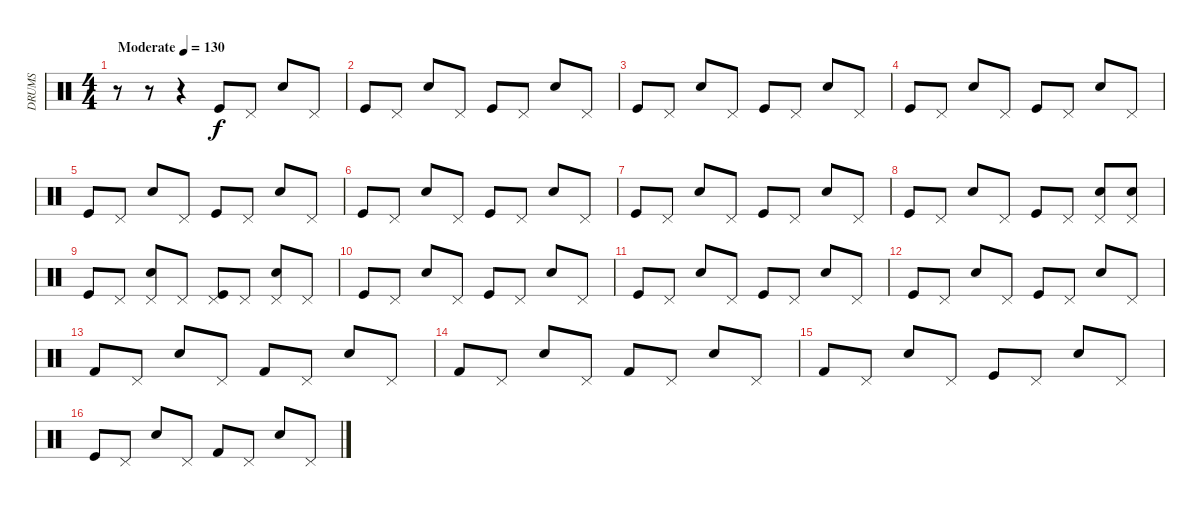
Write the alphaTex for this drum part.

\track ("DRUMS" "DRUMS") {instrument percussion}
\staff {score}
\articulation defaults
\ts (4 4)
\tempo (130 "Moderate")
\clef neutral
\ks c
r.8{dy f} r.8 r.4 "Kick (hit)".8 "Pedal Hi-Hat (hit)".8 "Snare (hit) 2".8 "Pedal Hi-Hat (hit)".8 |
"Kick (hit)".8 "Pedal Hi-Hat (hit)".8 "Snare (hit) 2".8 "Pedal Hi-Hat (hit)".8 "Kick (hit)".8 "Pedal Hi-Hat (hit)".8 "Snare (hit) 2".8 "Pedal Hi-Hat (hit)".8 |
"Kick (hit)".8 "Pedal Hi-Hat (hit)".8 "Snare (hit) 2".8 "Pedal Hi-Hat (hit)".8 "Kick (hit)".8 "Pedal Hi-Hat (hit)".8 "Snare (hit) 2".8 "Pedal Hi-Hat (hit)".8 |
"Kick (hit)".8 "Pedal Hi-Hat (hit)".8 "Snare (hit) 2".8 "Pedal Hi-Hat (hit)".8 "Kick (hit)".8 "Pedal Hi-Hat (hit)".8 "Snare (hit) 2".8 "Pedal Hi-Hat (hit)".8 |
"Kick (hit)".8 "Pedal Hi-Hat (hit)".8 "Snare (hit) 2".8 "Pedal Hi-Hat (hit)".8 "Kick (hit)".8 "Pedal Hi-Hat (hit)".8 "Snare (hit) 2".8 "Pedal Hi-Hat (hit)".8 |
"Kick (hit)".8 "Pedal Hi-Hat (hit)".8 "Snare (hit) 2".8 "Pedal Hi-Hat (hit)".8 "Kick (hit)".8 "Pedal Hi-Hat (hit)".8 "Snare (hit) 2".8 "Pedal Hi-Hat (hit)".8 |
"Kick (hit)".8 "Pedal Hi-Hat (hit)".8 "Snare (hit) 2".8 "Pedal Hi-Hat (hit)".8 "Kick (hit)".8 "Pedal Hi-Hat (hit)".8 "Snare (hit) 2".8 "Pedal Hi-Hat (hit)".8 |
"Kick (hit)".8 "Pedal Hi-Hat (hit)".8 "Snare (hit) 2".8 "Pedal Hi-Hat (hit)".8 "Kick (hit)".8 "Pedal Hi-Hat (hit)".8 ("Pedal Hi-Hat (hit)" "Snare (hit) 2").8 ("Pedal Hi-Hat (hit)" "Snare (hit)").8 |
"Kick (hit)".8 "Pedal Hi-Hat (hit)".8 ("Pedal Hi-Hat (hit)" "Snare (hit) 2").8 "Pedal Hi-Hat (hit)".8 ("Pedal Hi-Hat (hit)" "Kick (hit)").8 "Pedal Hi-Hat (hit)".8 ("Pedal Hi-Hat (hit)" "Snare (hit) 2").8 "Pedal Hi-Hat (hit)".8 |
"Kick (hit)".8 "Pedal Hi-Hat (hit)".8 "Snare (hit) 2".8 "Pedal Hi-Hat (hit)".8 "Kick (hit)".8 "Pedal Hi-Hat (hit)".8 "Snare (hit) 2".8 "Pedal Hi-Hat (hit)".8 |
"Kick (hit)".8 "Pedal Hi-Hat (hit)".8 "Snare (hit) 2".8 "Pedal Hi-Hat (hit)".8 "Kick (hit)".8 "Pedal Hi-Hat (hit)".8 "Snare (hit) 2".8 "Pedal Hi-Hat (hit)".8 |
"Kick (hit)".8 "Pedal Hi-Hat (hit)".8 "Snare (hit) 2".8 "Pedal Hi-Hat (hit)".8 "Kick (hit)".8 "Pedal Hi-Hat (hit)".8 "Snare (hit) 2".8 "Pedal Hi-Hat (hit)".8 |
"Kick (hit) 2".8 "Pedal Hi-Hat (hit)".8 "Snare (hit) 2".8 "Pedal Hi-Hat (hit)".8 "Kick (hit) 2".8 "Pedal Hi-Hat (hit)".8 "Snare (hit) 2".8 "Pedal Hi-Hat (hit)".8 |
"Kick (hit) 2".8 "Pedal Hi-Hat (hit)".8 "Snare (hit) 2".8 "Pedal Hi-Hat (hit)".8 "Kick (hit) 2".8 "Pedal Hi-Hat (hit)".8 "Snare (hit) 2".8 "Pedal Hi-Hat (hit)".8 |
"Kick (hit) 2".8 "Pedal Hi-Hat (hit)".8 "Snare (hit) 2".8 "Pedal Hi-Hat (hit)".8 "Kick (hit)".8 "Pedal Hi-Hat (hit)".8 "Snare (hit) 2".8 "Pedal Hi-Hat (hit)".8 |
"Kick (hit)".8 "Pedal Hi-Hat (hit)".8 "Snare (hit) 2".8 "Pedal Hi-Hat (hit)".8 "Kick (hit) 2".8 "Pedal Hi-Hat (hit)".8 "Snare (hit) 2".8 "Pedal Hi-Hat (hit)".8
